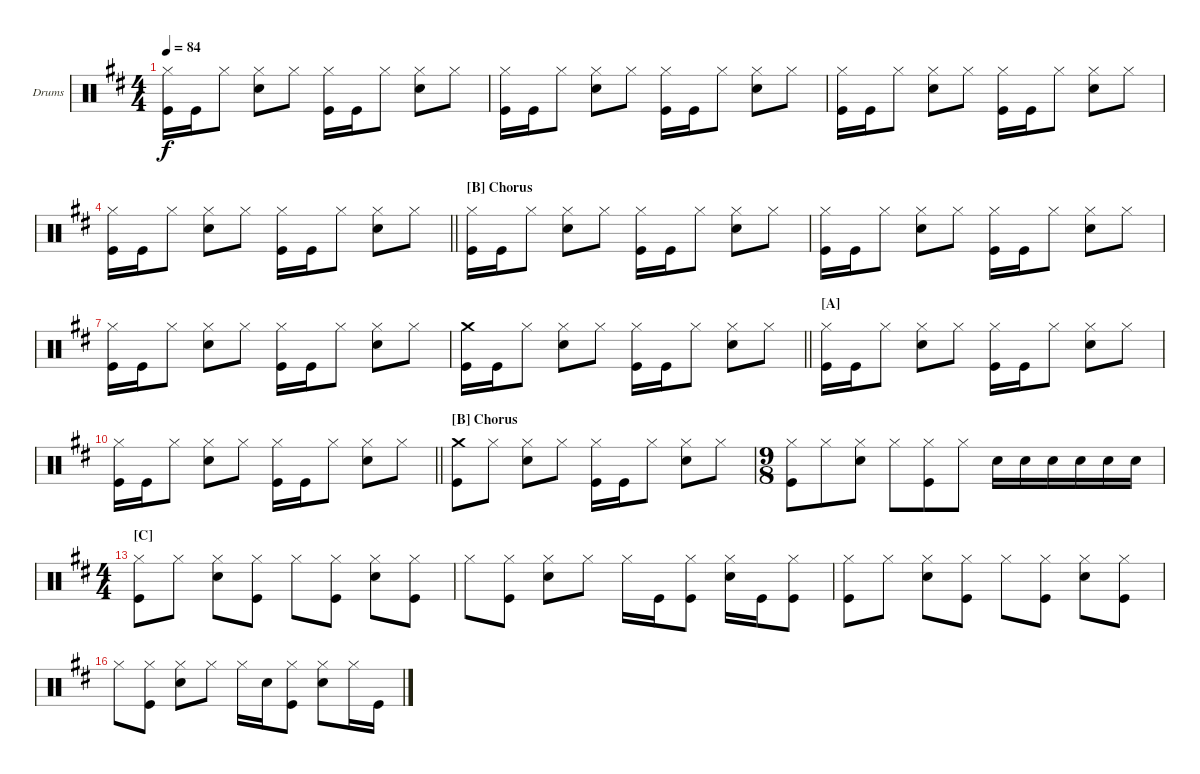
\bracketExtendMode nobrackets
\firstSystemTrackNameOrientation horizontal
\otherSystemsTrackNameOrientation horizontal
\defaultBarNumberDisplay FirstOfSystem
\track ("Drumkit" "Drums") {instrument percussion}
\staff {score}
\articulation defaults
\ts (4 4)
\tempo 84
\clef neutral
\ks d
("Kick (hit)" "Hi-Hat (closed)").16{dy f} "Kick (hit)".16 "Hi-Hat (closed)".8 ("Snare (hit) 2" "Hi-Hat (closed)").8 "Hi-Hat (closed)".8 ("Kick (hit)" "Hi-Hat (closed)").16 "Kick (hit)".16 "Hi-Hat (closed)".8 ("Snare (hit) 2" "Hi-Hat (closed)").8 "Hi-Hat (closed)".8 |
("Kick (hit)" "Hi-Hat (closed)").16 "Kick (hit)".16 "Hi-Hat (closed)".8 ("Snare (hit) 2" "Hi-Hat (closed)").8 "Hi-Hat (closed)".8 ("Kick (hit)" "Hi-Hat (closed)").16 "Kick (hit)".16 "Hi-Hat (closed)".8 ("Snare (hit) 2" "Hi-Hat (closed)").8 "Hi-Hat (closed)".8 |
("Kick (hit)" "Hi-Hat (closed)").16 "Kick (hit)".16 "Hi-Hat (closed)".8 ("Snare (hit) 2" "Hi-Hat (closed)").8 "Hi-Hat (closed)".8 ("Kick (hit)" "Hi-Hat (closed)").16 "Kick (hit)".16 "Hi-Hat (closed)".8 ("Snare (hit) 2" "Hi-Hat (closed)").8 "Hi-Hat (closed)".8 |
\barLineRight lightlight
("Kick (hit)" "Hi-Hat (closed)").16 "Kick (hit)".16 "Hi-Hat (closed)".8 ("Snare (hit) 2" "Hi-Hat (closed)").8 "Hi-Hat (closed)".8 ("Kick (hit)" "Hi-Hat (closed)").16 "Kick (hit)".16 "Hi-Hat (closed)".8 ("Snare (hit) 2" "Hi-Hat (closed)").8 "Hi-Hat (closed)".8 |
\section ("B" "Chorus")
("Kick (hit)" "Hi-Hat (closed)").16 "Kick (hit)".16 "Hi-Hat (closed)".8 ("Snare (hit) 2" "Hi-Hat (closed)").8 "Hi-Hat (closed)".8 ("Kick (hit)" "Hi-Hat (closed)").16 "Kick (hit)".16 "Hi-Hat (closed)".8 ("Snare (hit) 2" "Hi-Hat (closed)").8 "Hi-Hat (closed)".8 |
("Kick (hit)" "Hi-Hat (closed)").16 "Kick (hit)".16 "Hi-Hat (closed)".8 ("Snare (hit) 2" "Hi-Hat (closed)").8 "Hi-Hat (closed)".8 ("Kick (hit)" "Hi-Hat (closed)").16 "Kick (hit)".16 "Hi-Hat (closed)".8 ("Snare (hit) 2" "Hi-Hat (closed)").8 "Hi-Hat (closed)".8 |
("Kick (hit)" "Hi-Hat (closed)").16 "Kick (hit)".16 "Hi-Hat (closed)".8 ("Snare (hit) 2" "Hi-Hat (closed)").8 "Hi-Hat (closed)".8 ("Kick (hit)" "Hi-Hat (closed)").16 "Kick (hit)".16 "Hi-Hat (closed)".8 ("Snare (hit) 2" "Hi-Hat (closed)").8 "Hi-Hat (closed)".8 |
\barLineRight lightlight
("Kick (hit)" "Crash medium (hit)").16 "Kick (hit)".16 "Hi-Hat (closed)".8 ("Snare (hit) 2" "Hi-Hat (closed)").8 "Hi-Hat (closed)".8 ("Kick (hit)" "Hi-Hat (closed)").16 "Kick (hit)".16 "Hi-Hat (closed)".8 ("Snare (hit) 2" "Hi-Hat (closed)").8 "Hi-Hat (closed)".8 |
\section ("A" "")
("Kick (hit)" "Hi-Hat (closed)").16 "Kick (hit)".16 "Hi-Hat (closed)".8 ("Snare (hit) 2" "Hi-Hat (closed)").8 "Hi-Hat (closed)".8 ("Kick (hit)" "Hi-Hat (closed)").16 "Kick (hit)".16 "Hi-Hat (closed)".8 ("Snare (hit) 2" "Hi-Hat (closed)").8 "Hi-Hat (closed)".8 |
\barLineRight lightlight
("Kick (hit)" "Hi-Hat (closed)").16 "Kick (hit)".16 "Hi-Hat (closed)".8 ("Snare (hit) 2" "Hi-Hat (closed)").8 "Hi-Hat (closed)".8 ("Kick (hit)" "Hi-Hat (closed)").16 "Kick (hit)".16 "Hi-Hat (closed)".8 ("Snare (hit) 2" "Hi-Hat (closed)").8 "Hi-Hat (closed)".8 |
\section ("B" "Chorus")
("Kick (hit)" "Crash medium (hit)").8 "Hi-Hat (closed)".8 ("Snare (hit) 2" "Hi-Hat (closed)").8 "Hi-Hat (closed)".8 ("Kick (hit)" "Hi-Hat (closed)").16 "Kick (hit)".16 "Hi-Hat (closed)".8 ("Snare (hit) 2" "Hi-Hat (closed)").8 "Hi-Hat (closed)".8 |
\ts (9 8)
\beaming (8 3 3 3)
("Kick (hit)" "Hi-Hat (closed)").8 "Hi-Hat (closed)".8 ("Snare (hit) 2" "Hi-Hat (closed)").8 "Hi-Hat (closed)".8 ("Kick (hit)" "Hi-Hat (closed)").8 "Hi-Hat (closed)".8 "Snare (hit) 2".16 "Snare (hit) 2".16 "Snare (hit) 2".16 "Snare (hit) 2".16 "Snare (hit) 2".16 "Snare (hit) 2".16 |
\ts (4 4)
\beaming (8 2 2 2 2)
\section ("C" "")
("Kick (hit)" "Hi-Hat (closed)").8 "Hi-Hat (closed)".8 ("Snare (hit) 2" "Hi-Hat (closed)").8 ("Kick (hit)" "Hi-Hat (closed)").8 "Hi-Hat (closed)".8 ("Kick (hit)" "Hi-Hat (closed)").8 ("Snare (hit) 2" "Hi-Hat (closed)").8 ("Kick (hit)" "Hi-Hat (closed)").8 |
"Hi-Hat (closed)".8 ("Kick (hit)" "Hi-Hat (closed)").8 ("Snare (hit) 2" "Hi-Hat (closed)").8 "Hi-Hat (closed)".8 "Hi-Hat (closed)".16 "Kick (hit)".16 ("Kick (hit)" "Hi-Hat (closed)").8 ("Snare (hit) 2" "Hi-Hat (closed)").16 "Kick (hit)".16 ("Kick (hit)" "Hi-Hat (closed)").8 |
("Kick (hit)" "Hi-Hat (closed)").8 "Hi-Hat (closed)".8 ("Snare (hit) 2" "Hi-Hat (closed)").8 ("Kick (hit)" "Hi-Hat (closed)").8 "Hi-Hat (closed)".8 ("Kick (hit)" "Hi-Hat (closed)").8 ("Snare (hit) 2" "Hi-Hat (closed)").8 ("Kick (hit)" "Hi-Hat (closed)").8 |
"Hi-Hat (closed)".8 ("Kick (hit)" "Hi-Hat (closed)").8 ("Snare (hit) 2" "Hi-Hat (closed)").8 "Hi-Hat (closed)".8 "Hi-Hat (closed)".16 "Snare (hit) 2".16 ("Kick (hit)" "Hi-Hat (closed)").8 ("Snare (hit) 2" "Hi-Hat (closed)").8 "Hi-Hat (closed)".16 "Kick (hit)".16
